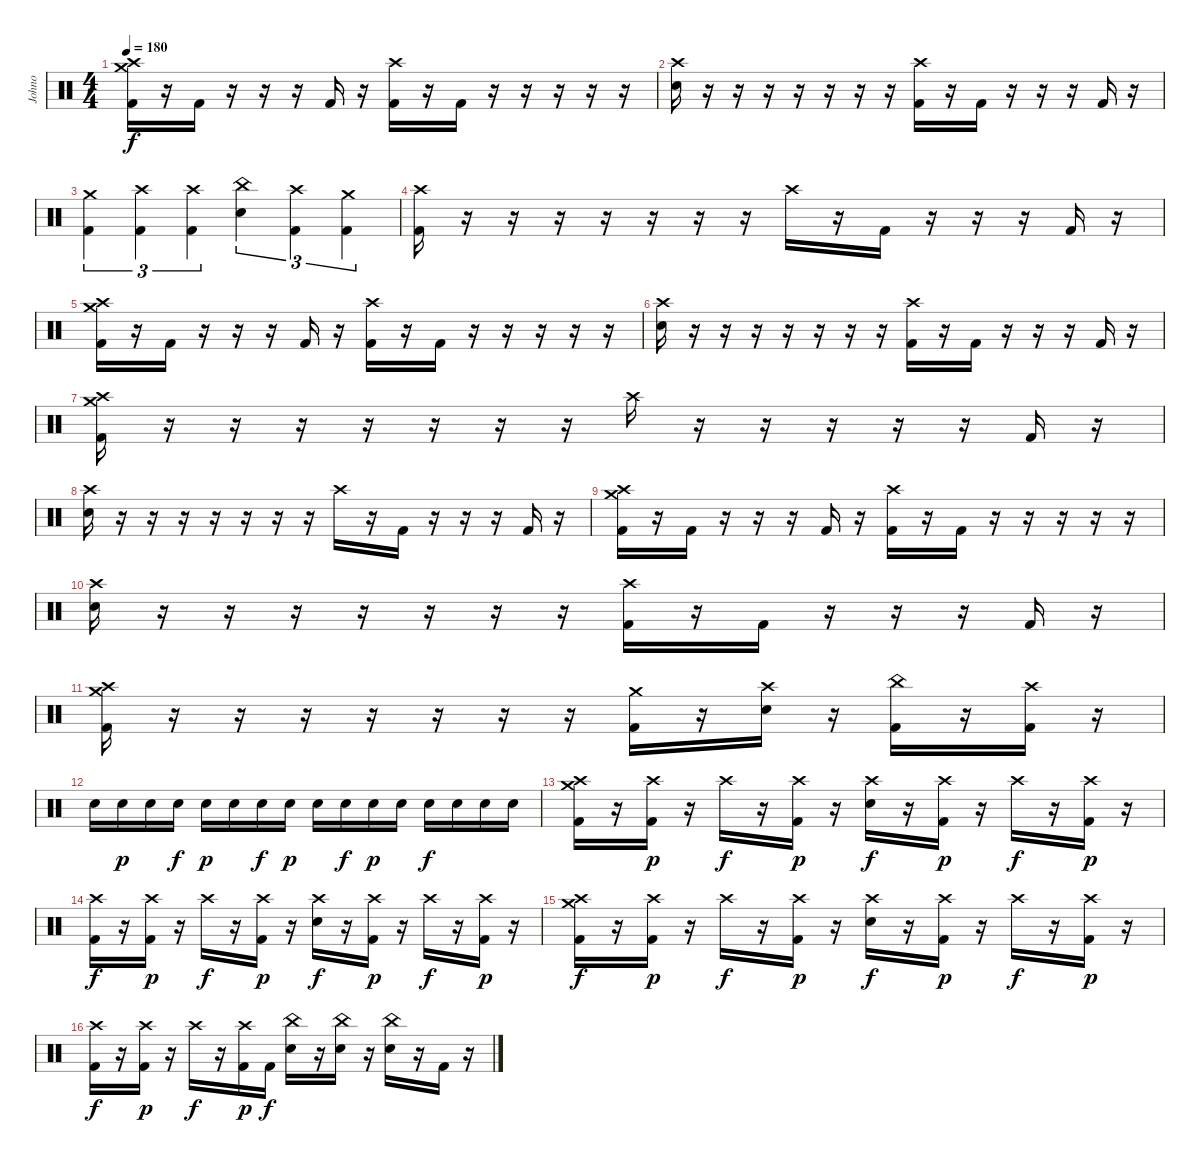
\track (" Johno" " Johno") {instrument percussion}
\staff {score}
\articulation defaults
\ts (4 4)
\tempo 180
\clef neutral
\ks c
("Crash medium (hit)" "Crash high (hit)" "Kick (hit) 2").16{dy f} r.16 "Kick (hit) 2".16 r.16 r.16 r.16 "Kick (hit) 2".16 r.16 ("Crash high (hit)" "Kick (hit) 2").16 r.16 "Kick (hit) 2".16 r.16 r.16 r.16 r.16 r.16 |
("Crash high (hit)" "Electric Snare (hit)").16 r.16 r.16 r.16 r.16 r.16 r.16 r.16 ("Crash high (hit)" "Kick (hit) 2").16 r.16 "Kick (hit) 2".16 r.16 r.16 r.16 "Kick (hit) 2".16 r.16 |
("Crash medium (hit)" "Kick (hit) 2").4{tu (3 2)} ("Crash high (hit)" "Kick (hit) 2").4{tu (3 2)} ("Crash high (hit)" "Kick (hit) 2").4{tu (3 2)} ("China (hit)" "Electric Snare (hit)").4{tu (3 2)} ("Crash high (hit)" "Kick (hit) 2").4{tu (3 2)} ("Crash medium (hit)" "Kick (hit) 2").4{tu (3 2)} |
("Crash high (hit)" "Kick (hit) 2").16 r.16 r.16 r.16 r.16 r.16 r.16 r.16 "Crash high (hit)".16 r.16 "Kick (hit) 2".16 r.16 r.16 r.16 "Kick (hit) 2".16 r.16 |
("Crash medium (hit)" "Crash high (hit)" "Kick (hit) 2").16 r.16 "Kick (hit) 2".16 r.16 r.16 r.16 "Kick (hit) 2".16 r.16 ("Crash high (hit)" "Kick (hit) 2").16 r.16 "Kick (hit) 2".16 r.16 r.16 r.16 r.16 r.16 |
("Crash high (hit)" "Electric Snare (hit)").16 r.16 r.16 r.16 r.16 r.16 r.16 r.16 ("Crash high (hit)" "Kick (hit) 2").16 r.16 "Kick (hit) 2".16 r.16 r.16 r.16 "Kick (hit) 2".16 r.16 |
("Crash medium (hit)" "Crash high (hit)" "Kick (hit) 2").16 r.16 r.16 r.16 r.16 r.16 r.16 r.16 "Crash high (hit)".16 r.16 r.16 r.16 r.16 r.16 "Kick (hit) 2".16 r.16 |
("Crash high (hit)" "Electric Snare (hit)").16 r.16 r.16 r.16 r.16 r.16 r.16 r.16 "Crash high (hit)".16 r.16 "Kick (hit) 2".16 r.16 r.16 r.16 "Kick (hit) 2".16 r.16 |
("Crash medium (hit)" "Crash high (hit)" "Kick (hit) 2").16 r.16 "Kick (hit) 2".16 r.16 r.16 r.16 "Kick (hit) 2".16 r.16 ("Crash high (hit)" "Kick (hit) 2").16 r.16 "Kick (hit) 2".16 r.16 r.16 r.16 r.16 r.16 |
("Crash high (hit)" "Electric Snare (hit)").16 r.16 r.16 r.16 r.16 r.16 r.16 r.16 ("Crash high (hit)" "Kick (hit) 2").16 r.16 "Kick (hit) 2".16 r.16 r.16 r.16 "Kick (hit) 2".16 r.16 |
("Crash medium (hit)" "Crash high (hit)" "Kick (hit) 2").16 r.16 r.16 r.16 r.16 r.16 r.16 r.16 ("Crash medium (hit)" "Kick (hit) 2").16 r.16 ("Crash high (hit)" "Electric Snare (hit)").16 r.16 ("China (hit)" "Kick (hit) 2").16 r.16 ("Crash high (hit)" "Kick (hit) 2").16 r.16 |
"Electric Snare (hit)".16 "Electric Snare (hit)".16{dy p} "Electric Snare (hit)".16 "Electric Snare (hit)".16{dy f} "Electric Snare (hit)".16{dy p} "Electric Snare (hit)".16 "Electric Snare (hit)".16{dy f} "Electric Snare (hit)".16{dy p} "Electric Snare (hit)".16 "Electric Snare (hit)".16{dy f} "Electric Snare (hit)".16{dy p} "Electric Snare (hit)".16 "Electric Snare (hit)".16{dy f} "Electric Snare (hit)".16 "Electric Snare (hit)".16 "Electric Snare (hit)".16 |
("Crash medium (hit)" "Crash high (hit)" "Kick (hit) 2").16 r.16 ("Crash high (hit)" "Kick (hit) 2").16{dy p} r.16 "Crash high (hit)".16{dy f} r.16 ("Crash high (hit)" "Kick (hit) 2").16{dy p} r.16 ("Crash high (hit)" "Electric Snare (hit)").16{dy f} r.16 ("Crash high (hit)" "Kick (hit) 2").16{dy p} r.16 "Crash high (hit)".16{dy f} r.16 ("Crash high (hit)" "Kick (hit) 2").16{dy p} r.16 |
("Crash high (hit)" "Kick (hit) 2").16{dy f} r.16 ("Crash high (hit)" "Kick (hit) 2").16{dy p} r.16 "Crash high (hit)".16{dy f} r.16 ("Crash high (hit)" "Kick (hit) 2").16{dy p} r.16 ("Crash high (hit)" "Electric Snare (hit)").16{dy f} r.16 ("Crash high (hit)" "Kick (hit) 2").16{dy p} r.16 "Crash high (hit)".16{dy f} r.16 ("Crash high (hit)" "Kick (hit) 2").16{dy p} r.16 |
("Crash medium (hit)" "Crash high (hit)" "Kick (hit) 2").16{dy f} r.16 ("Crash high (hit)" "Kick (hit) 2").16{dy p} r.16 "Crash high (hit)".16{dy f} r.16 ("Crash high (hit)" "Kick (hit) 2").16{dy p} r.16 ("Crash high (hit)" "Electric Snare (hit)").16{dy f} r.16 ("Crash high (hit)" "Kick (hit) 2").16{dy p} r.16 "Crash high (hit)".16{dy f} r.16 ("Crash high (hit)" "Kick (hit) 2").16{dy p} r.16 |
("Crash high (hit)" "Kick (hit) 2").16{dy f} r.16 ("Crash high (hit)" "Kick (hit) 2").16{dy p} r.16 "Crash high (hit)".16{dy f} r.16 ("Crash high (hit)" "Kick (hit) 2").16{dy p} "Kick (hit) 2".16{dy f} ("China (hit)" "Electric Snare (hit)").16 r.16 ("China (hit)" "Electric Snare (hit)").16 r.16 ("China (hit)" "Electric Snare (hit)").16 r.16 "Kick (hit) 2".16 r.16
